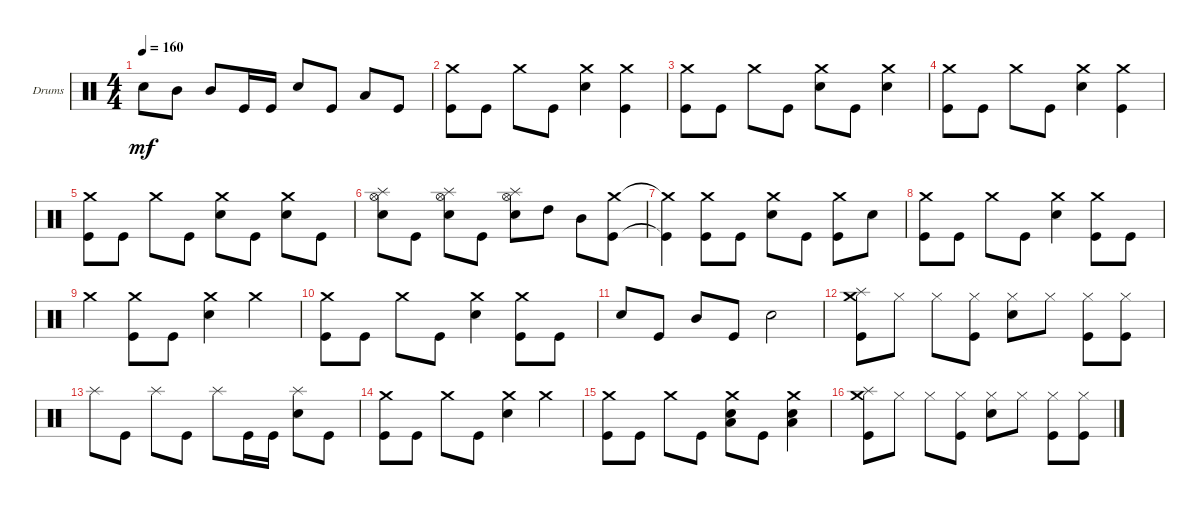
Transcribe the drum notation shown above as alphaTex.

\bracketExtendMode groupsimilarinstruments
\firstSystemTrackNameOrientation horizontal
\otherSystemsTrackNameOrientation horizontal
\track ("Drums" "Drums") {instrument percussion}
\staff {score}
\articulation defaults
\ts (4 4)
\tempo 160
\clef neutral
\ks c "Snare (hit) 2"{t}.8{dy mf} "Mid Tom (hit)".8 "Mid Tom (hit)".8 "Kick (hit)".16 "Kick (hit)".16 "Snare (hit) 2".8 "Kick (hit)".8 "Low Tom (hit)".8 "Kick (hit)".8
|
("Kick (hit)" "Crash medium (hit)").8 "Kick (hit)".8 "Crash medium (hit)".8 "Kick (hit)".8 ("Snare (hit) 2" "Crash medium (hit)").4 ("Kick (hit)" "Crash medium (hit)").4 |
("Kick (hit)" "Crash medium (hit)").8 "Kick (hit)".8 "Crash medium (hit)".8 "Kick (hit)".8 ("Snare (hit) 2" "Crash medium (hit)").8 "Kick (hit)".8 ("Snare (hit) 2" "Crash medium (hit)").4 |
("Kick (hit)" "Crash medium (hit)").8 "Kick (hit)".8 "Crash medium (hit)".8 "Kick (hit)".8 ("Snare (hit) 2" "Crash medium (hit)").4 ("Kick (hit)" "Crash medium (hit)").4 |
("Kick (hit)" "Crash medium (hit)").8 "Kick (hit)".8 "Crash medium (hit)".8 "Kick (hit)".8 ("Snare (hit) 2" "Crash medium (hit)").8 "Kick (hit)".8 ("Snare (hit) 2" "Crash medium (hit)").8 "Kick (hit)".8 |
("Snare (hit) 2" "Hi-Hat (open)" "Splash (hit)").8 "Kick (hit)".8 ("Snare (hit) 2" "Hi-Hat (open)" "Splash (hit)").8 "Kick (hit)".8 ("Snare (hit) 2" "Hi-Hat (open)" "Splash (hit)").8 "High Tom (hit)".8 "Mid Tom (hit)".8 ("Kick (hit)" "Crash medium (hit)").8 |
("Kick (hit)"{t} "Crash medium (hit)"{t}).4 ("Kick (hit)" "Crash medium (hit)").8 "Kick (hit)".8 ("Snare (hit) 2" "Crash medium (hit)").8 "Kick (hit)".8 ("Kick (hit)" "Crash medium (hit)").8 "Snare (hit) 2".8 |
("Kick (hit)" "Crash medium (hit)").8 "Kick (hit)".8 "Crash medium (hit)".8 "Kick (hit)".8 ("Snare (hit) 2" "Crash medium (hit)").4 ("Kick (hit)" "Crash medium (hit)").8 "Kick (hit)".8 |
"Crash medium (hit)".4 ("Kick (hit)" "Crash medium (hit)").8 "Kick (hit)".8 ("Snare (hit) 2" "Crash medium (hit)").4 "Crash medium (hit)".4 |
("Kick (hit)" "Crash medium (hit)").8 "Kick (hit)".8 "Crash medium (hit)".8 "Kick (hit)".8 ("Snare (hit) 2" "Crash medium (hit)").4 ("Kick (hit)" "Crash medium (hit)").8 "Kick (hit)".8 |
"Snare (hit) 2".8 "Kick (hit)".8 "Mid Tom (hit)".8 "Kick (hit)".8 "Snare (hit) 2".2 |
("Kick (hit)" "Splash (hit)" "Crash medium (hit)").8 "Hi-Hat (closed)".8 "Hi-Hat (closed)".8 ("Kick (hit)" "Hi-Hat (closed)").8 ("Snare (hit) 2" "Hi-Hat (closed)").8 "Hi-Hat (closed)".8 ("Kick (hit)" "Hi-Hat (closed)").8 ("Kick (hit)" "Hi-Hat (closed)").8 |
"Splash (hit)".8 "Kick (hit)".8 "Splash (hit)".8 "Kick (hit)".8 "Splash (hit)".8 "Kick (hit)".16 "Kick (hit)".16 ("Snare (hit) 2" "Splash (hit)").8 "Kick (hit)".8 |
("Kick (hit)" "Crash medium (hit)").8 "Kick (hit)".8 "Crash medium (hit)".8 "Kick (hit)".8 ("Snare (hit) 2" "Crash medium (hit)").4 "Crash medium (hit)".4 |
("Kick (hit)" "Crash medium (hit)").8 "Kick (hit)".8 "Crash medium (hit)".8 "Kick (hit)".8 ("Snare (hit) 2" "Low Tom (hit)" "Crash medium (hit)").8 "Kick (hit)".8 ("Snare (hit) 2" "Low Tom (hit)" "Crash medium (hit)").4 |
("Kick (hit)" "Splash (hit)" "Crash medium (hit)").8 "Hi-Hat (closed)".8 "Hi-Hat (closed)".8 ("Kick (hit)" "Hi-Hat (closed)").8 ("Snare (hit) 2" "Hi-Hat (closed)").8 "Hi-Hat (closed)".8 ("Kick (hit)" "Hi-Hat (closed)").8 ("Kick (hit)" "Hi-Hat (closed)").8
